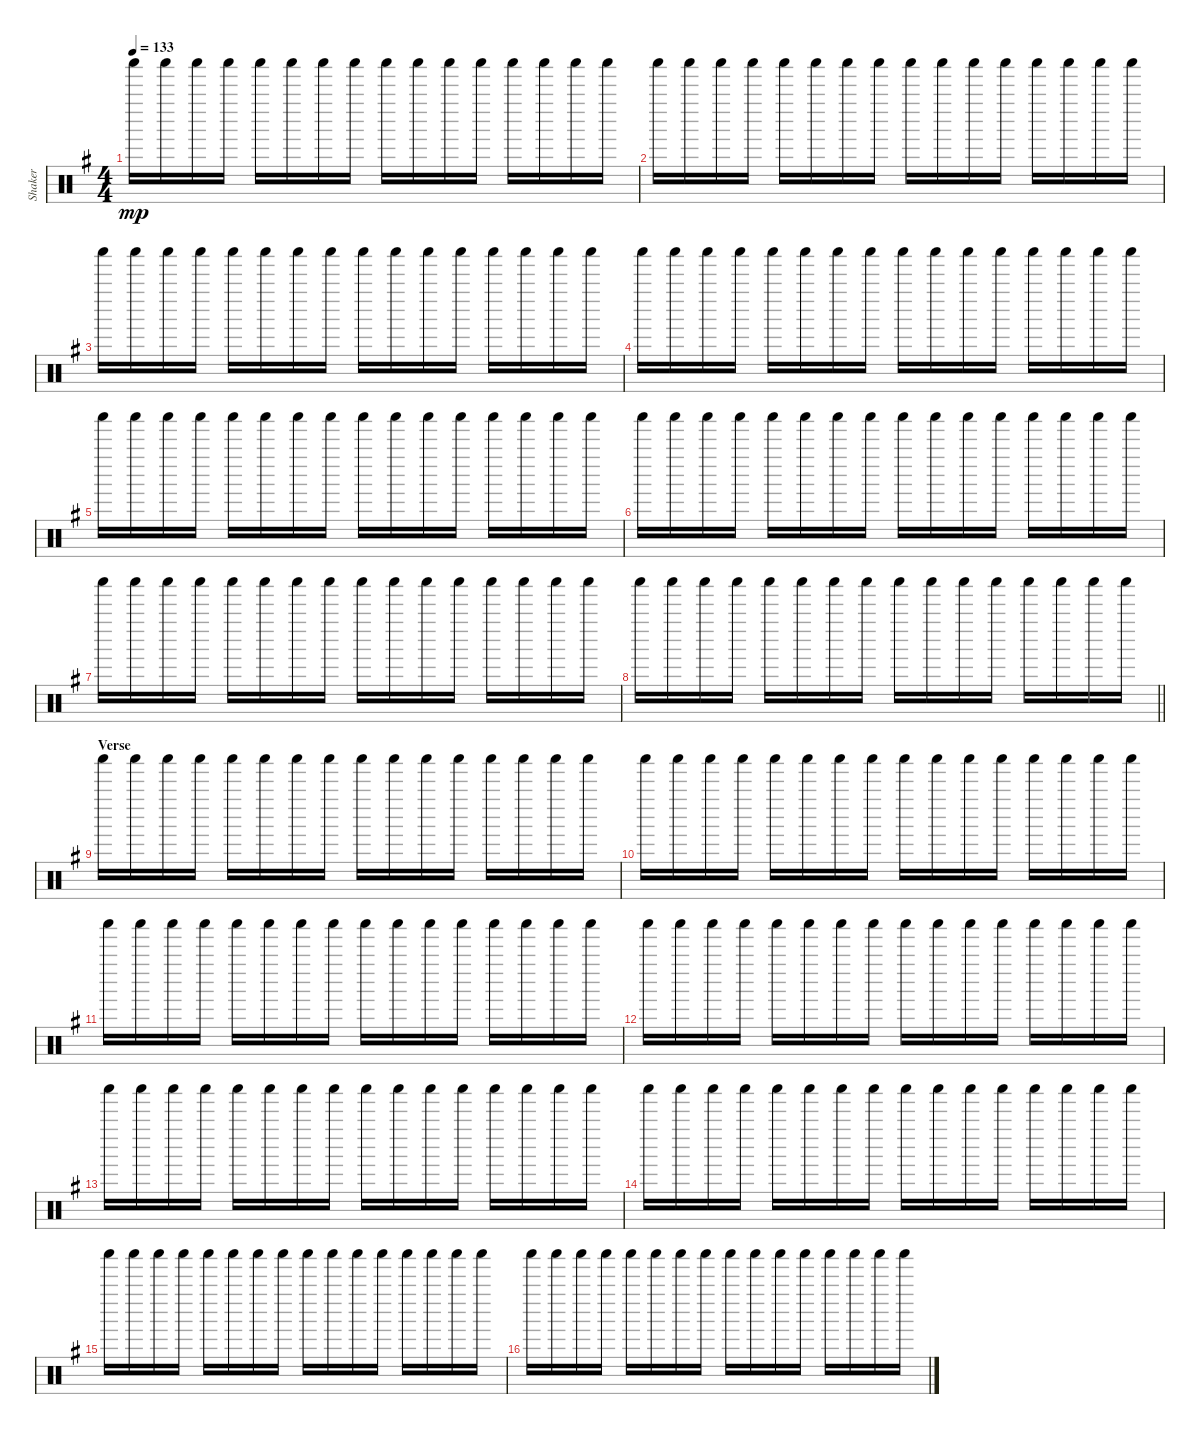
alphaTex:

\track ("Shaker" "Shaker") {instrument percussion}
\staff {score}
\articulation defaults
\ts (4 4)
\tempo 133
\clef neutral
\ks g "Shaker (hit)".16{dy mp} "Shaker (hit)".16 "Shaker (hit)".16 "Shaker (hit)".16 "Shaker (hit)".16 "Shaker (hit)".16 "Shaker (hit)".16 "Shaker (hit)".16 "Shaker (hit)".16 "Shaker (hit)".16 "Shaker (hit)".16 "Shaker (hit)".16 "Shaker (hit)".16 "Shaker (hit)".16 "Shaker (hit)".16 "Shaker (hit)".16
|
"Shaker (hit)".16 "Shaker (hit)".16 "Shaker (hit)".16 "Shaker (hit)".16 "Shaker (hit)".16 "Shaker (hit)".16 "Shaker (hit)".16 "Shaker (hit)".16 "Shaker (hit)".16 "Shaker (hit)".16 "Shaker (hit)".16 "Shaker (hit)".16 "Shaker (hit)".16 "Shaker (hit)".16 "Shaker (hit)".16 "Shaker (hit)".16 |
"Shaker (hit)".16 "Shaker (hit)".16 "Shaker (hit)".16 "Shaker (hit)".16 "Shaker (hit)".16 "Shaker (hit)".16 "Shaker (hit)".16 "Shaker (hit)".16 "Shaker (hit)".16 "Shaker (hit)".16 "Shaker (hit)".16 "Shaker (hit)".16 "Shaker (hit)".16 "Shaker (hit)".16 "Shaker (hit)".16 "Shaker (hit)".16 |
"Shaker (hit)".16 "Shaker (hit)".16 "Shaker (hit)".16 "Shaker (hit)".16 "Shaker (hit)".16 "Shaker (hit)".16 "Shaker (hit)".16 "Shaker (hit)".16 "Shaker (hit)".16 "Shaker (hit)".16 "Shaker (hit)".16 "Shaker (hit)".16 "Shaker (hit)".16 "Shaker (hit)".16 "Shaker (hit)".16 "Shaker (hit)".16 |
"Shaker (hit)".16 "Shaker (hit)".16 "Shaker (hit)".16 "Shaker (hit)".16 "Shaker (hit)".16 "Shaker (hit)".16 "Shaker (hit)".16 "Shaker (hit)".16 "Shaker (hit)".16 "Shaker (hit)".16 "Shaker (hit)".16 "Shaker (hit)".16 "Shaker (hit)".16 "Shaker (hit)".16 "Shaker (hit)".16 "Shaker (hit)".16 |
"Shaker (hit)".16 "Shaker (hit)".16 "Shaker (hit)".16 "Shaker (hit)".16 "Shaker (hit)".16 "Shaker (hit)".16 "Shaker (hit)".16 "Shaker (hit)".16 "Shaker (hit)".16 "Shaker (hit)".16 "Shaker (hit)".16 "Shaker (hit)".16 "Shaker (hit)".16 "Shaker (hit)".16 "Shaker (hit)".16 "Shaker (hit)".16 |
"Shaker (hit)".16 "Shaker (hit)".16 "Shaker (hit)".16 "Shaker (hit)".16 "Shaker (hit)".16 "Shaker (hit)".16 "Shaker (hit)".16 "Shaker (hit)".16 "Shaker (hit)".16 "Shaker (hit)".16 "Shaker (hit)".16 "Shaker (hit)".16 "Shaker (hit)".16 "Shaker (hit)".16 "Shaker (hit)".16 "Shaker (hit)".16 |
\barLineRight lightlight "Shaker (hit)".16 "Shaker (hit)".16 "Shaker (hit)".16 "Shaker (hit)".16 "Shaker (hit)".16 "Shaker (hit)".16 "Shaker (hit)".16 "Shaker (hit)".16 "Shaker (hit)".16 "Shaker (hit)".16 "Shaker (hit)".16 "Shaker (hit)".16 "Shaker (hit)".16 "Shaker (hit)".16 "Shaker (hit)".16 "Shaker (hit)".16
|
\section ("" "Verse")
"Shaker (hit)".16 "Shaker (hit)".16 "Shaker (hit)".16 "Shaker (hit)".16 "Shaker (hit)".16 "Shaker (hit)".16 "Shaker (hit)".16 "Shaker (hit)".16 "Shaker (hit)".16 "Shaker (hit)".16 "Shaker (hit)".16 "Shaker (hit)".16 "Shaker (hit)".16 "Shaker (hit)".16 "Shaker (hit)".16 "Shaker (hit)".16 |
"Shaker (hit)".16 "Shaker (hit)".16 "Shaker (hit)".16 "Shaker (hit)".16 "Shaker (hit)".16 "Shaker (hit)".16 "Shaker (hit)".16 "Shaker (hit)".16 "Shaker (hit)".16 "Shaker (hit)".16 "Shaker (hit)".16 "Shaker (hit)".16 "Shaker (hit)".16 "Shaker (hit)".16 "Shaker (hit)".16 "Shaker (hit)".16 |
"Shaker (hit)".16 "Shaker (hit)".16 "Shaker (hit)".16 "Shaker (hit)".16 "Shaker (hit)".16 "Shaker (hit)".16 "Shaker (hit)".16 "Shaker (hit)".16 "Shaker (hit)".16 "Shaker (hit)".16 "Shaker (hit)".16 "Shaker (hit)".16 "Shaker (hit)".16 "Shaker (hit)".16 "Shaker (hit)".16 "Shaker (hit)".16 |
"Shaker (hit)".16 "Shaker (hit)".16 "Shaker (hit)".16 "Shaker (hit)".16 "Shaker (hit)".16 "Shaker (hit)".16 "Shaker (hit)".16 "Shaker (hit)".16 "Shaker (hit)".16 "Shaker (hit)".16 "Shaker (hit)".16 "Shaker (hit)".16 "Shaker (hit)".16 "Shaker (hit)".16 "Shaker (hit)".16 "Shaker (hit)".16 |
"Shaker (hit)".16 "Shaker (hit)".16 "Shaker (hit)".16 "Shaker (hit)".16 "Shaker (hit)".16 "Shaker (hit)".16 "Shaker (hit)".16 "Shaker (hit)".16 "Shaker (hit)".16 "Shaker (hit)".16 "Shaker (hit)".16 "Shaker (hit)".16 "Shaker (hit)".16 "Shaker (hit)".16 "Shaker (hit)".16 "Shaker (hit)".16 |
"Shaker (hit)".16 "Shaker (hit)".16 "Shaker (hit)".16 "Shaker (hit)".16 "Shaker (hit)".16 "Shaker (hit)".16 "Shaker (hit)".16 "Shaker (hit)".16 "Shaker (hit)".16 "Shaker (hit)".16 "Shaker (hit)".16 "Shaker (hit)".16 "Shaker (hit)".16 "Shaker (hit)".16 "Shaker (hit)".16 "Shaker (hit)".16 |
"Shaker (hit)".16 "Shaker (hit)".16 "Shaker (hit)".16 "Shaker (hit)".16 "Shaker (hit)".16 "Shaker (hit)".16 "Shaker (hit)".16 "Shaker (hit)".16 "Shaker (hit)".16 "Shaker (hit)".16 "Shaker (hit)".16 "Shaker (hit)".16 "Shaker (hit)".16 "Shaker (hit)".16 "Shaker (hit)".16 "Shaker (hit)".16 |
"Shaker (hit)".16 "Shaker (hit)".16 "Shaker (hit)".16 "Shaker (hit)".16 "Shaker (hit)".16 "Shaker (hit)".16 "Shaker (hit)".16 "Shaker (hit)".16 "Shaker (hit)".16 "Shaker (hit)".16 "Shaker (hit)".16 "Shaker (hit)".16 "Shaker (hit)".16 "Shaker (hit)".16 "Shaker (hit)".16 "Shaker (hit)".16
